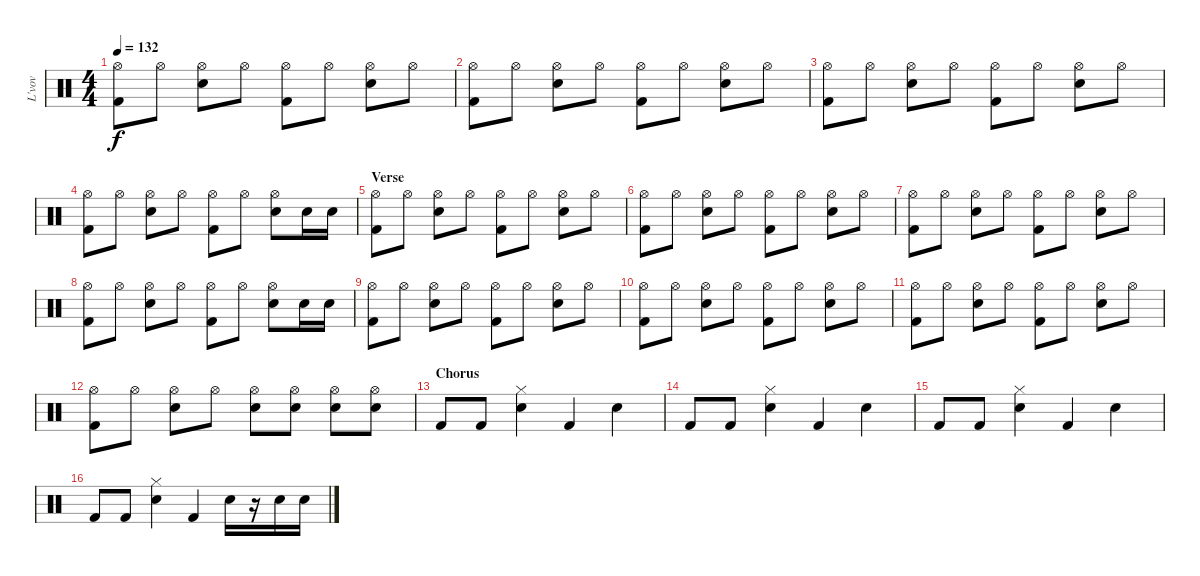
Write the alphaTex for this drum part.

\track ("L'vov" "L'vov") {instrument percussion}
\staff {score}
\articulation defaults
\ts (4 4)
\tempo 132
\clef neutral
\ks c
("Hi-Hat (open)" "Kick (hit) 2").8{dy f} "Hi-Hat (open)".8 ("Hi-Hat (open)" "Snare (hit) 2").8 "Hi-Hat (open)".8 ("Hi-Hat (open)" "Kick (hit) 2").8 "Hi-Hat (open)".8 ("Hi-Hat (open)" "Snare (hit) 2").8 "Hi-Hat (open)".8 |
("Hi-Hat (open)" "Kick (hit) 2").8 "Hi-Hat (open)".8 ("Hi-Hat (open)" "Snare (hit) 2").8 "Hi-Hat (open)".8 ("Hi-Hat (open)" "Kick (hit) 2").8 "Hi-Hat (open)".8 ("Hi-Hat (open)" "Snare (hit) 2").8 "Hi-Hat (open)".8 |
("Hi-Hat (open)" "Kick (hit) 2").8 "Hi-Hat (open)".8 ("Hi-Hat (open)" "Snare (hit) 2").8 "Hi-Hat (open)".8 ("Hi-Hat (open)" "Kick (hit) 2").8 "Hi-Hat (open)".8 ("Hi-Hat (open)" "Snare (hit) 2").8 "Hi-Hat (open)".8 |
("Hi-Hat (open)" "Kick (hit) 2").8 "Hi-Hat (open)".8 ("Hi-Hat (open)" "Snare (hit) 2").8 "Hi-Hat (open)".8 ("Hi-Hat (open)" "Kick (hit) 2").8 "Hi-Hat (open)".8 ("Hi-Hat (open)" "Snare (hit) 2").8 "Snare (hit) 2".16 "Snare (hit) 2".16 |
\section ("" "Verse")
("Hi-Hat (open)" "Kick (hit) 2").8 "Hi-Hat (open)".8 ("Hi-Hat (open)" "Snare (hit) 2").8 "Hi-Hat (open)".8 ("Hi-Hat (open)" "Kick (hit) 2").8 "Hi-Hat (open)".8 ("Hi-Hat (open)" "Snare (hit) 2").8 "Hi-Hat (open)".8 |
("Hi-Hat (open)" "Kick (hit) 2").8 "Hi-Hat (open)".8 ("Hi-Hat (open)" "Snare (hit) 2").8 "Hi-Hat (open)".8 ("Hi-Hat (open)" "Kick (hit) 2").8 "Hi-Hat (open)".8 ("Hi-Hat (open)" "Snare (hit) 2").8 "Hi-Hat (open)".8 |
("Hi-Hat (open)" "Kick (hit) 2").8 "Hi-Hat (open)".8 ("Hi-Hat (open)" "Snare (hit) 2").8 "Hi-Hat (open)".8 ("Hi-Hat (open)" "Kick (hit) 2").8 "Hi-Hat (open)".8 ("Hi-Hat (open)" "Snare (hit) 2").8 "Hi-Hat (open)".8 |
("Hi-Hat (open)" "Kick (hit) 2").8 "Hi-Hat (open)".8 ("Hi-Hat (open)" "Snare (hit) 2").8 "Hi-Hat (open)".8 ("Hi-Hat (open)" "Kick (hit) 2").8 "Hi-Hat (open)".8 ("Hi-Hat (open)" "Snare (hit) 2").8 "Snare (hit) 2".16 "Snare (hit) 2".16 |
("Hi-Hat (open)" "Kick (hit) 2").8 "Hi-Hat (open)".8 ("Hi-Hat (open)" "Snare (hit) 2").8 "Hi-Hat (open)".8 ("Hi-Hat (open)" "Kick (hit) 2").8 "Hi-Hat (open)".8 ("Hi-Hat (open)" "Snare (hit) 2").8 "Hi-Hat (open)".8 |
("Hi-Hat (open)" "Kick (hit) 2").8 "Hi-Hat (open)".8 ("Hi-Hat (open)" "Snare (hit) 2").8 "Hi-Hat (open)".8 ("Hi-Hat (open)" "Kick (hit) 2").8 "Hi-Hat (open)".8 ("Hi-Hat (open)" "Snare (hit) 2").8 "Hi-Hat (open)".8 |
("Hi-Hat (open)" "Kick (hit) 2").8 "Hi-Hat (open)".8 ("Hi-Hat (open)" "Snare (hit) 2").8 "Hi-Hat (open)".8 ("Hi-Hat (open)" "Kick (hit) 2").8 "Hi-Hat (open)".8 ("Hi-Hat (open)" "Snare (hit) 2").8 "Hi-Hat (open)".8 |
("Hi-Hat (open)" "Kick (hit) 2").8 "Hi-Hat (open)".8 ("Hi-Hat (open)" "Snare (hit) 2").8 "Hi-Hat (open)".8 ("Hi-Hat (open)" "Snare (hit) 2").8 ("Hi-Hat (open)" "Snare (hit) 2").8 ("Hi-Hat (open)" "Snare (hit) 2").8 ("Hi-Hat (open)" "Snare (hit) 2").8 |
\section ("" "Chorus")
"Kick (hit) 2".8 "Kick (hit) 2".8 ("Snare (hit) 2" "Hi-Hat (closed)").4 "Kick (hit) 2".4 "Snare (hit) 2".4 |
"Kick (hit) 2".8 "Kick (hit) 2".8 ("Snare (hit) 2" "Hi-Hat (closed)").4 "Kick (hit) 2".4 "Snare (hit) 2".4 |
"Kick (hit) 2".8 "Kick (hit) 2".8 ("Snare (hit) 2" "Hi-Hat (closed)").4 "Kick (hit) 2".4 "Snare (hit) 2".4 |
"Kick (hit) 2".8 "Kick (hit) 2".8 ("Snare (hit) 2" "Hi-Hat (closed)").4 "Kick (hit) 2".4 "Snare (hit) 2".16 r.16 "Snare (hit) 2".16 "Snare (hit) 2".16
